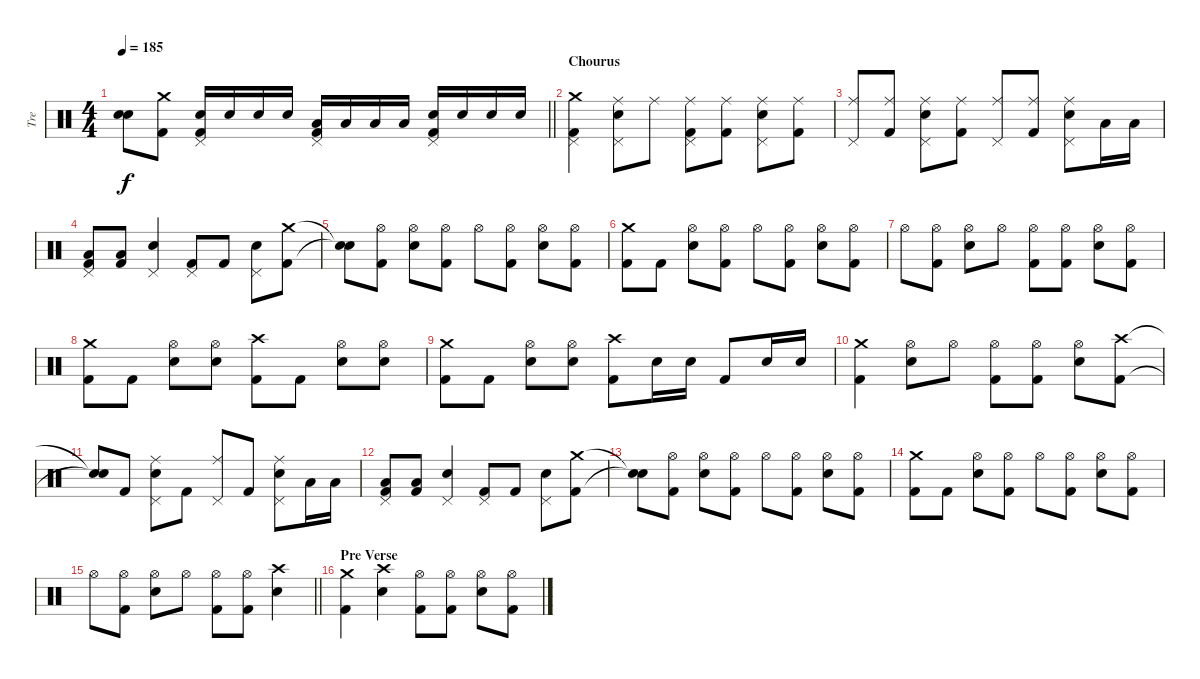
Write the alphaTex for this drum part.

\track ("Tre" "Tre") {instrument percussion}
\staff {score}
\articulation defaults
\ts (4 4)
\tempo 185
\clef neutral
\barLineRight lightlight
\ks c
("Snare (hit)"{t} "Snare (hit)"{t}).8{dy f} ("Crash medium (hit)" "Kick (hit) 2").8 ("Electric Snare (hit)" "Pedal Hi-Hat (hit)" "Kick (hit) 2").16 "Electric Snare (hit)".16 "Electric Snare (hit)".16 "Electric Snare (hit)".16 ("Low Tom (hit)" "Pedal Hi-Hat (hit)" "Kick (hit) 2").16 "Low Tom (hit)".16 "Low Tom (hit)".16 "Low Tom (hit)".16 ("Electric Snare (hit)" "Pedal Hi-Hat (hit)" "Kick (hit) 2").16 "Electric Snare (hit)".16 "Electric Snare (hit)".16 "Electric Snare (hit)".16 |
\section ("" "Chourus")
("Crash medium (hit)" "Pedal Hi-Hat (hit)" "Kick (hit) 2").4 ("Ride (middle)" "Electric Snare (hit)" "Pedal Hi-Hat (hit)").8 "Ride (middle)".8 ("Ride (middle)" "Pedal Hi-Hat (hit)" "Kick (hit) 2").8 ("Ride (middle)" "Kick (hit) 2").8 ("Ride (middle)" "Electric Snare (hit)" "Pedal Hi-Hat (hit)").8 ("Ride (middle)" "Kick (hit) 2").8 |
("Ride (middle)" "Pedal Hi-Hat (hit)").8 ("Ride (middle)" "Kick (hit) 2").8 ("Ride (middle)" "Electric Snare (hit)" "Pedal Hi-Hat (hit)").8 ("Ride (middle)" "Kick (hit) 2").8 ("Ride (middle)" "Pedal Hi-Hat (hit)").8 ("Ride (middle)" "Kick (hit) 2").8 ("Ride (middle)" "Electric Snare (hit)" "Pedal Hi-Hat (hit)").8 "Low Floor Tom (hit)".16 "Low Floor Tom (hit)".16 |
("Low Floor Tom (hit)" "Pedal Hi-Hat (hit)" "Kick (hit) 2").8 ("Low Floor Tom (hit)" "Kick (hit) 2").8 ("Electric Snare (hit)" "Pedal Hi-Hat (hit)").4 ("Pedal Hi-Hat (hit)" "Kick (hit) 2").8 "Kick (hit) 2".8 ("Electric Snare (hit)" "Pedal Hi-Hat (hit)").8 ("Crash medium (hit)" "Kick (hit) 2").8 |
("Snare (hit)"{t} "Snare (hit)"{t}).8 ("Hi-Hat (open)" "Kick (hit) 2").8 ("Hi-Hat (open)" "Electric Snare (hit)").8 ("Hi-Hat (open)" "Kick (hit) 2").8 "Hi-Hat (open)".8 ("Hi-Hat (open)" "Kick (hit) 2").8 ("Hi-Hat (open)" "Electric Snare (hit)").8 ("Hi-Hat (open)" "Kick (hit) 2").8 |
("Crash medium (hit)" "Kick (hit) 2").8 "Kick (hit) 2".8 ("Hi-Hat (open)" "Electric Snare (hit)").8 ("Hi-Hat (open)" "Kick (hit) 2").8 "Hi-Hat (open)".8 ("Hi-Hat (open)" "Kick (hit) 2").8 ("Hi-Hat (open)" "Electric Snare (hit)").8 ("Hi-Hat (open)" "Kick (hit) 2").8 |
"Hi-Hat (open)".8 ("Hi-Hat (open)" "Kick (hit) 2").8 ("Hi-Hat (open)" "Electric Snare (hit)").8 "Hi-Hat (open)".8 ("Hi-Hat (open)" "Kick (hit) 2").8 ("Hi-Hat (open)" "Kick (hit) 2").8 ("Hi-Hat (open)" "Electric Snare (hit)").8 ("Hi-Hat (open)" "Kick (hit) 2").8 |
("Crash medium (hit)" "Kick (hit) 2").8 "Kick (hit) 2".8 ("Hi-Hat (open)" "Electric Snare (hit)").8 ("Hi-Hat (open)" "Electric Snare (hit)").8 ("Crash high (hit)" "Kick (hit) 2").8 "Kick (hit) 2".8 ("Hi-Hat (open)" "Electric Snare (hit)").8 ("Hi-Hat (open)" "Electric Snare (hit)").8 |
("Crash medium (hit)" "Kick (hit) 2").8 "Kick (hit) 2".8 ("Hi-Hat (open)" "Electric Snare (hit)").8 ("Hi-Hat (open)" "Electric Snare (hit)").8 ("Crash high (hit)" "Kick (hit) 2").8 "Electric Snare (hit)".16 "Electric Snare (hit)".16 "Kick (hit) 2".8 "Electric Snare (hit)".16 "Electric Snare (hit)".16 |
("Crash medium (hit)" "Kick (hit) 2").4 ("Hi-Hat (open)" "Electric Snare (hit)").8 "Hi-Hat (open)".8 ("Hi-Hat (open)" "Kick (hit) 2").8 ("Hi-Hat (open)" "Kick (hit) 2").8 ("Hi-Hat (open)" "Electric Snare (hit)").8 ("Crash high (hit)" "Kick (hit) 2").8 |
("Snare (hit)"{t} "Snare (hit)"{t}).8 "Kick (hit) 2".8 ("Ride (middle)" "Electric Snare (hit)" "Pedal Hi-Hat (hit)").8 "Kick (hit) 2".8 ("Ride (middle)" "Pedal Hi-Hat (hit)").8 "Kick (hit) 2".8 ("Ride (middle)" "Electric Snare (hit)" "Pedal Hi-Hat (hit)").8 "Low Floor Tom (hit)".16 "Low Floor Tom (hit)".16 |
("Low Floor Tom (hit)" "Pedal Hi-Hat (hit)" "Kick (hit) 2").8 ("Low Floor Tom (hit)" "Kick (hit) 2").8 ("Electric Snare (hit)" "Pedal Hi-Hat (hit)").4 ("Pedal Hi-Hat (hit)" "Kick (hit) 2").8 "Kick (hit) 2".8 ("Electric Snare (hit)" "Pedal Hi-Hat (hit)").8 ("Crash medium (hit)" "Kick (hit) 2").8 |
("Snare (hit)"{t} "Snare (hit)"{t}).8 ("Hi-Hat (open)" "Kick (hit) 2").8 ("Hi-Hat (open)" "Electric Snare (hit)").8 ("Hi-Hat (open)" "Kick (hit) 2").8 "Hi-Hat (open)".8 ("Hi-Hat (open)" "Kick (hit) 2").8 ("Hi-Hat (open)" "Electric Snare (hit)").8 ("Hi-Hat (open)" "Kick (hit) 2").8 |
("Crash medium (hit)" "Kick (hit) 2").8 "Kick (hit) 2".8 ("Hi-Hat (open)" "Electric Snare (hit)").8 ("Hi-Hat (open)" "Kick (hit) 2").8 "Hi-Hat (open)".8 ("Hi-Hat (open)" "Kick (hit) 2").8 ("Hi-Hat (open)" "Electric Snare (hit)").8 ("Hi-Hat (open)" "Kick (hit) 2").8 |
\barLineRight lightlight "Hi-Hat (open)".8
("Hi-Hat (open)" "Kick (hit) 2").8 ("Hi-Hat (open)" "Electric Snare (hit)").8 "Hi-Hat (open)".8 ("Hi-Hat (open)" "Kick (hit) 2").8 ("Hi-Hat (open)" "Kick (hit) 2").8 ("Crash high (hit)" "Electric Snare (hit)").4 |
\section ("" "Pre Verse")
("Crash medium (hit)" "Kick (hit) 2").4 ("Crash high (hit)" "Electric Snare (hit)").4 ("Hi-Hat (open)" "Kick (hit) 2").8 ("Hi-Hat (open)" "Kick (hit) 2").8 ("Hi-Hat (open)" "Electric Snare (hit)").8 ("Hi-Hat (open)" "Kick (hit) 2").8
